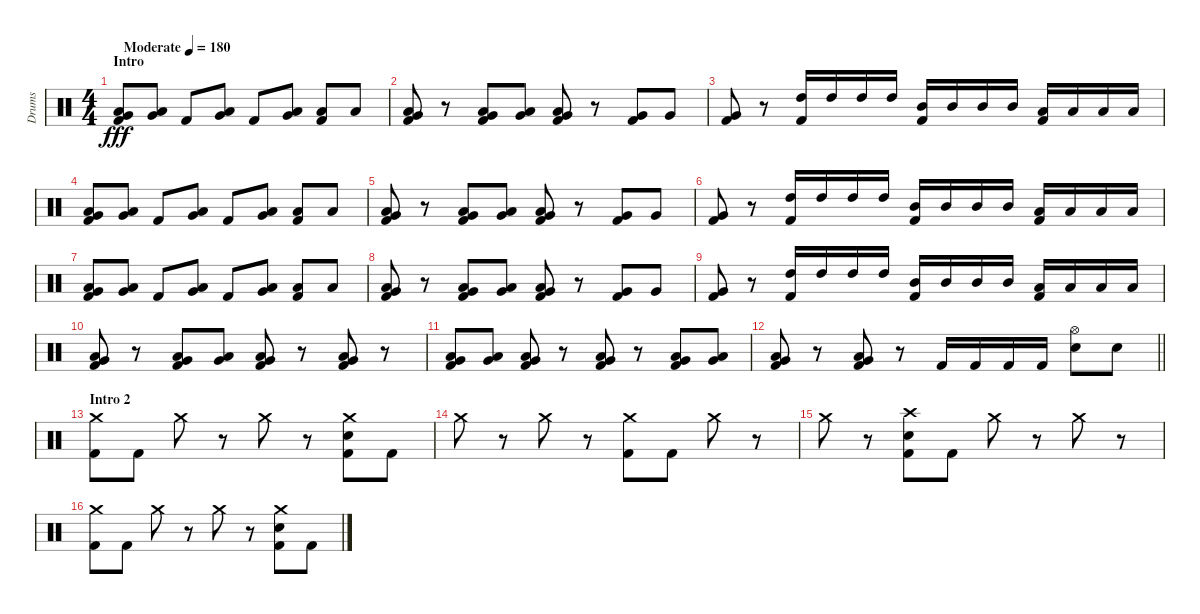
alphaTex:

\track ("Drums " "Drums ") {instrument percussion}
\staff {score}
\articulation defaults
\ts (4 4)
\section ("" "Intro ")
\tempo (180 "Moderate")
\clef neutral
\ks c
("Low Tom (hit)" "Very Low Tom (hit)" "Kick (hit) 2").8{dy fff} ("Low Tom (hit)" "Very Low Tom (hit)").8 "Kick (hit) 2".8 ("Low Tom (hit)" "Very Low Tom (hit)").8 "Kick (hit) 2".8 ("Low Tom (hit)" "Very Low Tom (hit)").8 ("Low Tom (hit)" "Kick (hit) 2").8 "Low Tom (hit)".8 |
("Low Tom (hit)" "Very Low Tom (hit)" "Kick (hit) 2").8 r.8 ("Low Tom (hit)" "Very Low Tom (hit)" "Kick (hit) 2").8 ("Low Tom (hit)" "Very Low Tom (hit)").8 ("Low Tom (hit)" "Very Low Tom (hit)" "Kick (hit) 2").8 r.8 ("Very Low Tom (hit)" "Kick (hit) 2").8 "Very Low Tom (hit)".8 |
("Very Low Tom (hit)" "Kick (hit) 2").8 r.8 ("High Tom (hit)" "Kick (hit) 2").16 "High Tom (hit)".16 "High Tom (hit)".16 "High Tom (hit)".16 ("Mid Tom (hit)" "Kick (hit) 2").16 "Mid Tom (hit)".16 "Mid Tom (hit)".16 "Mid Tom (hit)".16 ("Low Tom (hit)" "Kick (hit) 2").16 "Low Tom (hit)".16 "Low Tom (hit)".16 "Low Tom (hit)".16 |
("Low Tom (hit)" "Very Low Tom (hit)" "Kick (hit) 2").8 ("Low Tom (hit)" "Very Low Tom (hit)").8 "Kick (hit) 2".8 ("Low Tom (hit)" "Very Low Tom (hit)").8 "Kick (hit) 2".8 ("Low Tom (hit)" "Very Low Tom (hit)").8 ("Low Tom (hit)" "Kick (hit) 2").8 "Low Tom (hit)".8 |
("Low Tom (hit)" "Very Low Tom (hit)" "Kick (hit) 2").8 r.8 ("Low Tom (hit)" "Very Low Tom (hit)" "Kick (hit) 2").8 ("Low Tom (hit)" "Very Low Tom (hit)").8 ("Low Tom (hit)" "Very Low Tom (hit)" "Kick (hit) 2").8 r.8 ("Very Low Tom (hit)" "Kick (hit) 2").8 "Very Low Tom (hit)".8 |
("Very Low Tom (hit)" "Kick (hit) 2").8 r.8 ("High Tom (hit)" "Kick (hit) 2").16 "High Tom (hit)".16 "High Tom (hit)".16 "High Tom (hit)".16 ("Mid Tom (hit)" "Kick (hit) 2").16 "Mid Tom (hit)".16 "Mid Tom (hit)".16 "Mid Tom (hit)".16 ("Low Tom (hit)" "Kick (hit) 2").16 "Low Tom (hit)".16 "Low Tom (hit)".16 "Low Tom (hit)".16 |
("Low Tom (hit)" "Very Low Tom (hit)" "Kick (hit) 2").8 ("Low Tom (hit)" "Very Low Tom (hit)").8 "Kick (hit) 2".8 ("Low Tom (hit)" "Very Low Tom (hit)").8 "Kick (hit) 2".8 ("Low Tom (hit)" "Very Low Tom (hit)").8 ("Low Tom (hit)" "Kick (hit) 2").8 "Low Tom (hit)".8 |
("Low Tom (hit)" "Very Low Tom (hit)" "Kick (hit) 2").8 r.8 ("Low Tom (hit)" "Very Low Tom (hit)" "Kick (hit) 2").8 ("Low Tom (hit)" "Very Low Tom (hit)").8 ("Low Tom (hit)" "Very Low Tom (hit)" "Kick (hit) 2").8 r.8 ("Very Low Tom (hit)" "Kick (hit) 2").8 "Very Low Tom (hit)".8 |
("Very Low Tom (hit)" "Kick (hit) 2").8 r.8 ("High Tom (hit)" "Kick (hit) 2").16 "High Tom (hit)".16 "High Tom (hit)".16 "High Tom (hit)".16 ("Mid Tom (hit)" "Kick (hit) 2").16 "Mid Tom (hit)".16 "Mid Tom (hit)".16 "Mid Tom (hit)".16 ("Low Tom (hit)" "Kick (hit) 2").16 "Low Tom (hit)".16 "Low Tom (hit)".16 "Low Tom (hit)".16 |
("Low Tom (hit)" "Very Low Tom (hit)" "Kick (hit) 2").8 r.8 ("Low Tom (hit)" "Very Low Tom (hit)" "Kick (hit) 2").8 ("Low Tom (hit)" "Very Low Tom (hit)").8 ("Low Tom (hit)" "Very Low Tom (hit)" "Kick (hit) 2").8 r.8 ("Low Tom (hit)" "Very Low Tom (hit)" "Kick (hit) 2").8 r.8 |
("Low Tom (hit)" "Very Low Tom (hit)" "Kick (hit) 2").8 ("Low Tom (hit)" "Very Low Tom (hit)").8 ("Low Tom (hit)" "Very Low Tom (hit)" "Kick (hit) 2").8 r.8 ("Low Tom (hit)" "Very Low Tom (hit)" "Kick (hit) 2").8 r.8 ("Low Tom (hit)" "Very Low Tom (hit)" "Kick (hit) 2").8 ("Low Tom (hit)" "Very Low Tom (hit)").8 |
\barLineRight lightlight
("Low Tom (hit)" "Very Low Tom (hit)" "Kick (hit) 2").8 r.8 ("Low Tom (hit)" "Very Low Tom (hit)" "Kick (hit) 2").8 r.8 "Kick (hit) 2".16 "Kick (hit) 2".16 "Kick (hit) 2".16 "Kick (hit) 2".16 ("Hi-Hat (open)" "Snare (hit) 2").8 "Snare (hit) 2".8 |
\section ("" "Intro 2 ")
("Crash medium (hit)" "Kick (hit) 2").8 "Kick (hit) 2".8 "Crash medium (hit)".8 r.8 "Crash medium (hit)".8 r.8 ("Crash medium (hit)" "Snare (hit) 2" "Kick (hit) 2").8 "Kick (hit) 2".8 |
"Crash medium (hit)".8 r.8 "Crash medium (hit)".8 r.8 ("Crash medium (hit)" "Kick (hit) 2").8 "Kick (hit) 2".8 "Crash medium (hit)".8 r.8 |
"Crash medium (hit)".8 r.8 ("Crash high (hit)" "Snare (hit) 2" "Kick (hit) 2").8 "Kick (hit) 2".8 "Crash medium (hit)".8 r.8 "Crash medium (hit)".8 r.8 |
("Crash medium (hit)" "Kick (hit) 2").8 "Kick (hit) 2".8 "Crash medium (hit)".8 r.8 "Crash medium (hit)".8 r.8 ("Crash medium (hit)" "Snare (hit) 2" "Kick (hit) 2").8 "Kick (hit) 2".8
